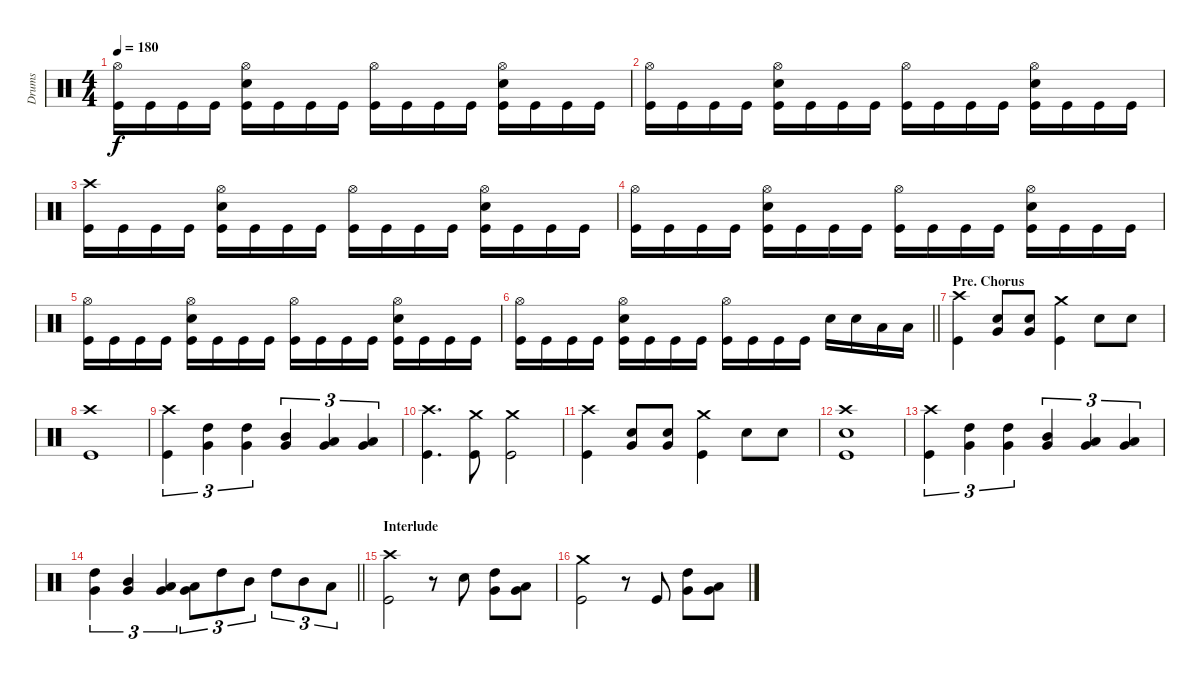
\track ("Drums" "Drums") {instrument percussion}
\staff {score}
\articulation defaults
\ts (4 4)
\tempo 180
\clef neutral
\ks c
("Hi-Hat (open)" "Kick (hit)").16{dy f} "Kick (hit)".16 "Kick (hit)".16 "Kick (hit)".16 ("Hi-Hat (open)" "Electric Snare (hit)" "Kick (hit)").16 "Kick (hit)".16 "Kick (hit)".16 "Kick (hit)".16 ("Hi-Hat (open)" "Kick (hit)").16 "Kick (hit)".16 "Kick (hit)".16 "Kick (hit)".16 ("Hi-Hat (open)" "Electric Snare (hit)" "Kick (hit)").16 "Kick (hit)".16 "Kick (hit)".16 "Kick (hit)".16 |
("Hi-Hat (open)" "Kick (hit)").16 "Kick (hit)".16 "Kick (hit)".16 "Kick (hit)".16 ("Hi-Hat (open)" "Electric Snare (hit)" "Kick (hit)").16 "Kick (hit)".16 "Kick (hit)".16 "Kick (hit)".16 ("Hi-Hat (open)" "Kick (hit)").16 "Kick (hit)".16 "Kick (hit)".16 "Kick (hit)".16 ("Hi-Hat (open)" "Electric Snare (hit)" "Kick (hit)").16 "Kick (hit)".16 "Kick (hit)".16 "Kick (hit)".16 |
("Crash high (hit)" "Kick (hit)").16 "Kick (hit)".16 "Kick (hit)".16 "Kick (hit)".16 ("Hi-Hat (open)" "Electric Snare (hit)" "Kick (hit)").16 "Kick (hit)".16 "Kick (hit)".16 "Kick (hit)".16 ("Hi-Hat (open)" "Kick (hit)").16 "Kick (hit)".16 "Kick (hit)".16 "Kick (hit)".16 ("Hi-Hat (open)" "Electric Snare (hit)" "Kick (hit)").16 "Kick (hit)".16 "Kick (hit)".16 "Kick (hit)".16 |
("Hi-Hat (open)" "Kick (hit)").16 "Kick (hit)".16 "Kick (hit)".16 "Kick (hit)".16 ("Hi-Hat (open)" "Electric Snare (hit)" "Kick (hit)").16 "Kick (hit)".16 "Kick (hit)".16 "Kick (hit)".16 ("Hi-Hat (open)" "Kick (hit)").16 "Kick (hit)".16 "Kick (hit)".16 "Kick (hit)".16 ("Hi-Hat (open)" "Electric Snare (hit)" "Kick (hit)").16 "Kick (hit)".16 "Kick (hit)".16 "Kick (hit)".16 |
("Hi-Hat (open)" "Kick (hit)").16 "Kick (hit)".16 "Kick (hit)".16 "Kick (hit)".16 ("Hi-Hat (open)" "Electric Snare (hit)" "Kick (hit)").16 "Kick (hit)".16 "Kick (hit)".16 "Kick (hit)".16 ("Hi-Hat (open)" "Kick (hit)").16 "Kick (hit)".16 "Kick (hit)".16 "Kick (hit)".16 ("Hi-Hat (open)" "Electric Snare (hit)" "Kick (hit)").16 "Kick (hit)".16 "Kick (hit)".16 "Kick (hit)".16 |
\barLineRight lightlight
("Hi-Hat (open)" "Kick (hit)").16 "Kick (hit)".16 "Kick (hit)".16 "Kick (hit)".16 ("Hi-Hat (open)" "Electric Snare (hit)" "Kick (hit)").16 "Kick (hit)".16 "Kick (hit)".16 "Kick (hit)".16 ("Hi-Hat (open)" "Kick (hit)").16 "Kick (hit)".16 "Kick (hit)".16 "Kick (hit)".16 "Electric Snare (hit)".16 "Electric Snare (hit)".16 "Low Tom (hit)".16 "Low Tom (hit)".16 |
\section ("" "Pre. Chorus")
("Crash high (hit)" "Kick (hit)").4 ("Very Low Tom (hit)" "Electric Snare (hit)").8 ("Very Low Tom (hit)" "Electric Snare (hit)").8 ("Crash medium (hit)" "Kick (hit)").4 "Electric Snare (hit)".8 "Electric Snare (hit)".8 |
("Crash high (hit)" "Kick (hit)").1 |
("Crash high (hit)" "Kick (hit)").4{tu (3 2)} ("Very Low Tom (hit)" "High Tom (hit)").4{tu (3 2)} ("Very Low Tom (hit)" "High Tom (hit)").4{tu (3 2)} ("Very Low Tom (hit)" "Mid Tom (hit)").4{tu (3 2)} ("Very Low Tom (hit)" "Low Tom (hit)").4{tu (3 2)} ("Low Floor Tom (hit)" "Very Low Tom (hit)").4{tu (3 2)} |
("Crash high (hit)" "Kick (hit)").4{d} ("Crash medium (hit)" "Kick (hit)").8 ("Crash medium (hit)" "Kick (hit)").2 |
("Crash high (hit)" "Kick (hit)").4 ("Very Low Tom (hit)" "Electric Snare (hit)").8 ("Very Low Tom (hit)" "Electric Snare (hit)").8 ("Crash medium (hit)" "Kick (hit)").4 "Electric Snare (hit)".8 "Electric Snare (hit)".8 |
("Crash high (hit)" "Electric Snare (hit)" "Kick (hit)").1 |
("Crash high (hit)" "Kick (hit)").4{tu (3 2)} ("Very Low Tom (hit)" "High Tom (hit)").4{tu (3 2)} ("Very Low Tom (hit)" "High Tom (hit)").4{tu (3 2)} ("Very Low Tom (hit)" "Mid Tom (hit)").4{tu (3 2)} ("Very Low Tom (hit)" "Low Tom (hit)").4{tu (3 2)} ("Low Floor Tom (hit)" "Very Low Tom (hit)").4{tu (3 2)} |
\barLineRight lightlight
("Very Low Tom (hit)" "High Tom (hit)").4{tu (3 2)} ("Very Low Tom (hit)" "Mid Tom (hit)").4{tu (3 2)} ("Very Low Tom (hit)" "Low Tom (hit)").4{tu (3 2)} ("Very Low Tom (hit)" "Low Tom (hit)").8{tu (3 2)} "High Tom (hit)".8{tu (3 2)} "Mid Tom (hit)".8{tu (3 2)} "High Tom (hit)".8{tu (3 2)} "Mid Tom (hit)".8{tu (3 2)} "Low Tom (hit)".8{tu (3 2)} |
\section ("" "Interlude")
("Crash high (hit)" "Kick (hit)").2 r.8 "Electric Snare (hit)".8 ("Very Low Tom (hit)" "High Tom (hit)").8 ("Very Low Tom (hit)" "Low Tom (hit)").8 |
("Crash medium (hit)" "Kick (hit)").2 r.8 "Kick (hit)".8 ("Very Low Tom (hit)" "High Tom (hit)").8 ("Very Low Tom (hit)" "Low Tom (hit)").8
